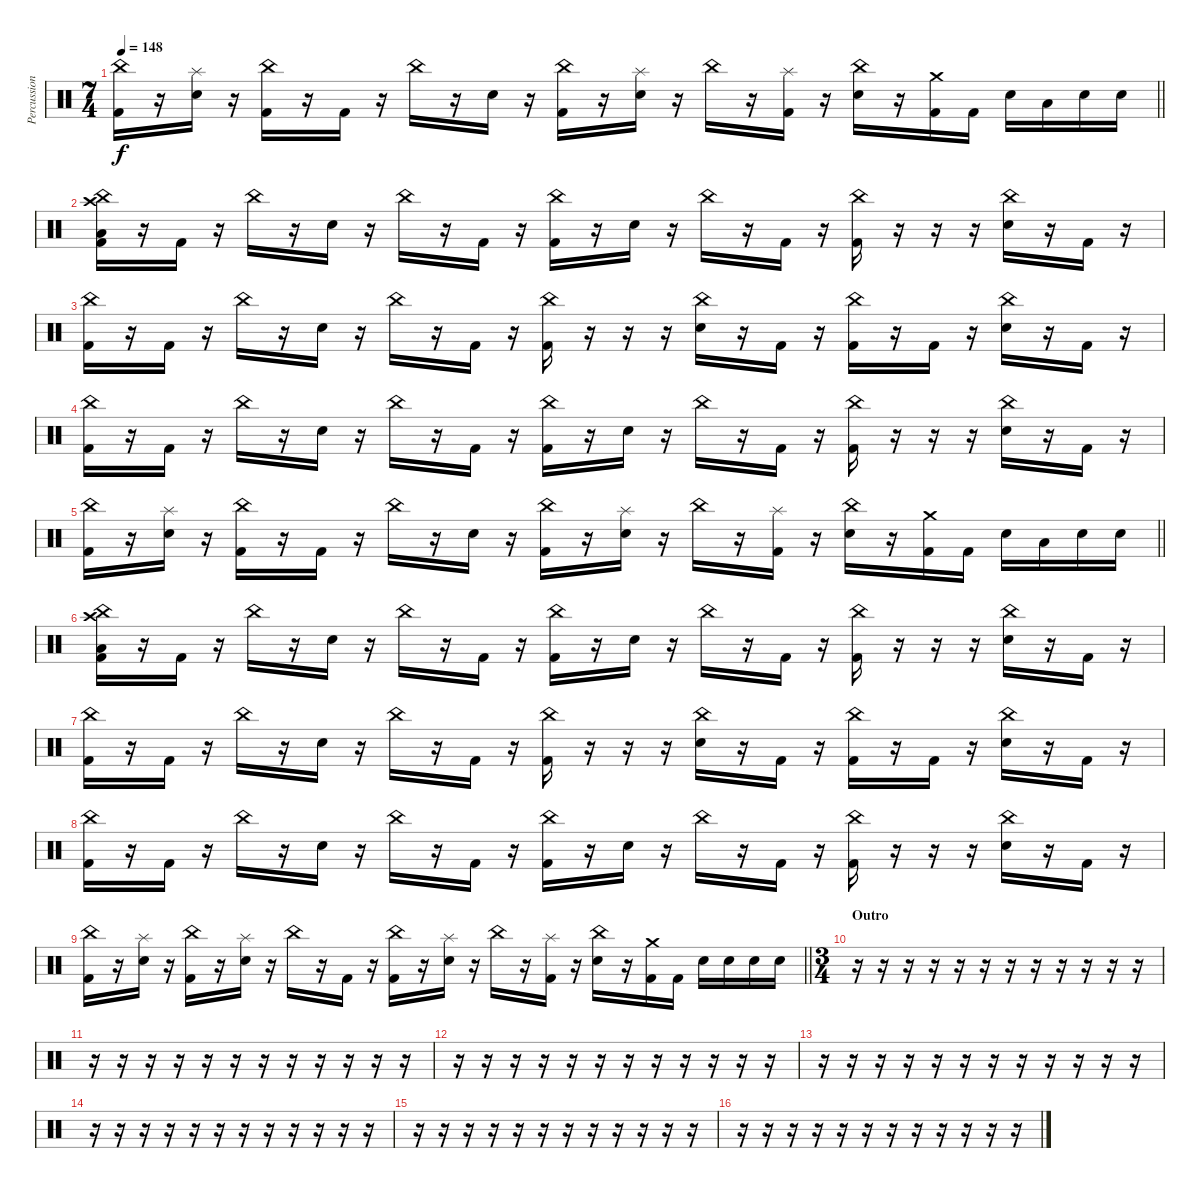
\track ("Percussion" "Percussion") {instrument percussion}
\staff {score}
\articulation defaults
\ts (7 4)
\tempo 148
\clef neutral
\barLineRight lightlight
\ks c
("China (hit)" "Kick (hit) 2").16{dy f} r.16 ("Splash (hit)" "Electric Snare (hit)").16 r.16 ("China (hit)" "Kick (hit) 2").16 r.16 "Kick (hit) 2".16 r.16 "China (hit)".16 r.16 "Electric Snare (hit)".16 r.16 ("China (hit)" "Kick (hit) 2").16 r.16 ("Splash (hit)" "Electric Snare (hit)").16 r.16 "China (hit)".16 r.16 ("Splash (hit)" "Kick (hit) 2").16 r.16 ("China (hit)" "Electric Snare (hit)").16 r.16 ("Crash medium (hit)" "Kick (hit) 2").16 "Kick (hit) 2".16 "Electric Snare (hit)".16 "Low Tom (hit)".16 "Electric Snare (hit)".16 "Electric Snare (hit)".16 |
("Crash high (hit)" "China (hit)" "Low Floor Tom (hit)" "Kick (hit) 2").16 r.16 "Kick (hit) 2".16 r.16 "China (hit)".16 r.16 "Electric Snare (hit)".16 r.16 "China (hit)".16 r.16 "Kick (hit) 2".16 r.16 ("China (hit)" "Kick (hit) 2").16 r.16 "Electric Snare (hit)".16 r.16 "China (hit)".16 r.16 "Kick (hit) 2".16 r.16 ("China (hit)" "Kick (hit) 2").16 r.16 r.16 r.16 ("China (hit)" "Electric Snare (hit)").16 r.16 "Kick (hit) 2".16 r.16 |
("China (hit)" "Kick (hit) 2").16 r.16 "Kick (hit) 2".16 r.16 "China (hit)".16 r.16 "Electric Snare (hit)".16 r.16 "China (hit)".16 r.16 "Kick (hit) 2".16 r.16 ("China (hit)" "Kick (hit) 2").16 r.16 r.16 r.16 ("China (hit)" "Electric Snare (hit)").16 r.16 "Kick (hit) 2".16 r.16 ("China (hit)" "Kick (hit) 2").16 r.16 "Kick (hit) 2".16 r.16 ("China (hit)" "Electric Snare (hit)").16 r.16 "Kick (hit) 2".16 r.16 |
("China (hit)" "Kick (hit) 2").16 r.16 "Kick (hit) 2".16 r.16 "China (hit)".16 r.16 "Electric Snare (hit)".16 r.16 "China (hit)".16 r.16 "Kick (hit) 2".16 r.16 ("China (hit)" "Kick (hit) 2").16 r.16 "Electric Snare (hit)".16 r.16 "China (hit)".16 r.16 "Kick (hit) 2".16 r.16 ("China (hit)" "Kick (hit) 2").16 r.16 r.16 r.16 ("China (hit)" "Electric Snare (hit)").16 r.16 "Kick (hit) 2".16 r.16 |
\barLineRight lightlight
("China (hit)" "Kick (hit) 2").16 r.16 ("Splash (hit)" "Electric Snare (hit)").16 r.16 ("China (hit)" "Kick (hit) 2").16 r.16 "Kick (hit) 2".16 r.16 "China (hit)".16 r.16 "Electric Snare (hit)".16 r.16 ("China (hit)" "Kick (hit) 2").16 r.16 ("Splash (hit)" "Electric Snare (hit)").16 r.16 "China (hit)".16 r.16 ("Splash (hit)" "Kick (hit) 2").16 r.16 ("China (hit)" "Electric Snare (hit)").16 r.16 ("Crash medium (hit)" "Kick (hit) 2").16 "Kick (hit) 2".16 "Electric Snare (hit)".16 "Low Tom (hit)".16 "Electric Snare (hit)".16 "Electric Snare (hit)".16 |
("Crash high (hit)" "China (hit)" "Low Floor Tom (hit)" "Kick (hit) 2").16 r.16 "Kick (hit) 2".16 r.16 "China (hit)".16 r.16 "Electric Snare (hit)".16 r.16 "China (hit)".16 r.16 "Kick (hit) 2".16 r.16 ("China (hit)" "Kick (hit) 2").16 r.16 "Electric Snare (hit)".16 r.16 "China (hit)".16 r.16 "Kick (hit) 2".16 r.16 ("China (hit)" "Kick (hit) 2").16 r.16 r.16 r.16 ("China (hit)" "Electric Snare (hit)").16 r.16 "Kick (hit) 2".16 r.16 |
("China (hit)" "Kick (hit) 2").16 r.16 "Kick (hit) 2".16 r.16 "China (hit)".16 r.16 "Electric Snare (hit)".16 r.16 "China (hit)".16 r.16 "Kick (hit) 2".16 r.16 ("China (hit)" "Kick (hit) 2").16 r.16 r.16 r.16 ("China (hit)" "Electric Snare (hit)").16 r.16 "Kick (hit) 2".16 r.16 ("China (hit)" "Kick (hit) 2").16 r.16 "Kick (hit) 2".16 r.16 ("China (hit)" "Electric Snare (hit)").16 r.16 "Kick (hit) 2".16 r.16 |
("China (hit)" "Kick (hit) 2").16 r.16 "Kick (hit) 2".16 r.16 "China (hit)".16 r.16 "Electric Snare (hit)".16 r.16 "China (hit)".16 r.16 "Kick (hit) 2".16 r.16 ("China (hit)" "Kick (hit) 2").16 r.16 "Electric Snare (hit)".16 r.16 "China (hit)".16 r.16 "Kick (hit) 2".16 r.16 ("China (hit)" "Kick (hit) 2").16 r.16 r.16 r.16 ("China (hit)" "Electric Snare (hit)").16 r.16 "Kick (hit) 2".16 r.16 |
\barLineRight lightlight
("China (hit)" "Kick (hit) 2").16 r.16 ("Splash (hit)" "Electric Snare (hit)").16 r.16 ("China (hit)" "Kick (hit) 2").16 r.16 ("Splash (hit)" "Electric Snare (hit)").16 r.16 "China (hit)".16 r.16 "Kick (hit) 2".16 r.16 ("China (hit)" "Kick (hit) 2").16 r.16 ("Splash (hit)" "Electric Snare (hit)").16 r.16 "China (hit)".16 r.16 ("Splash (hit)" "Kick (hit) 2").16 r.16 ("China (hit)" "Electric Snare (hit)").16 r.16 ("Crash medium (hit)" "Kick (hit) 2").16 "Kick (hit) 2".16 "Electric Snare (hit)".16 "Electric Snare (hit)".16 "Electric Snare (hit)".16 "Electric Snare (hit)".16 |
\ts (3 4)
\section ("" "Outro")
r.16 r.16 r.16 r.16 r.16 r.16 r.16 r.16 r.16 r.16 r.16 r.16 |
r.16 r.16 r.16 r.16 r.16 r.16 r.16 r.16 r.16 r.16 r.16 r.16 |
r.16 r.16 r.16 r.16 r.16 r.16 r.16 r.16 r.16 r.16 r.16 r.16 |
r.16 r.16 r.16 r.16 r.16 r.16 r.16 r.16 r.16 r.16 r.16 r.16 |
r.16 r.16 r.16 r.16 r.16 r.16 r.16 r.16 r.16 r.16 r.16 r.16 |
r.16 r.16 r.16 r.16 r.16 r.16 r.16 r.16 r.16 r.16 r.16 r.16 |
r.16 r.16 r.16 r.16 r.16 r.16 r.16 r.16 r.16 r.16 r.16 r.16
